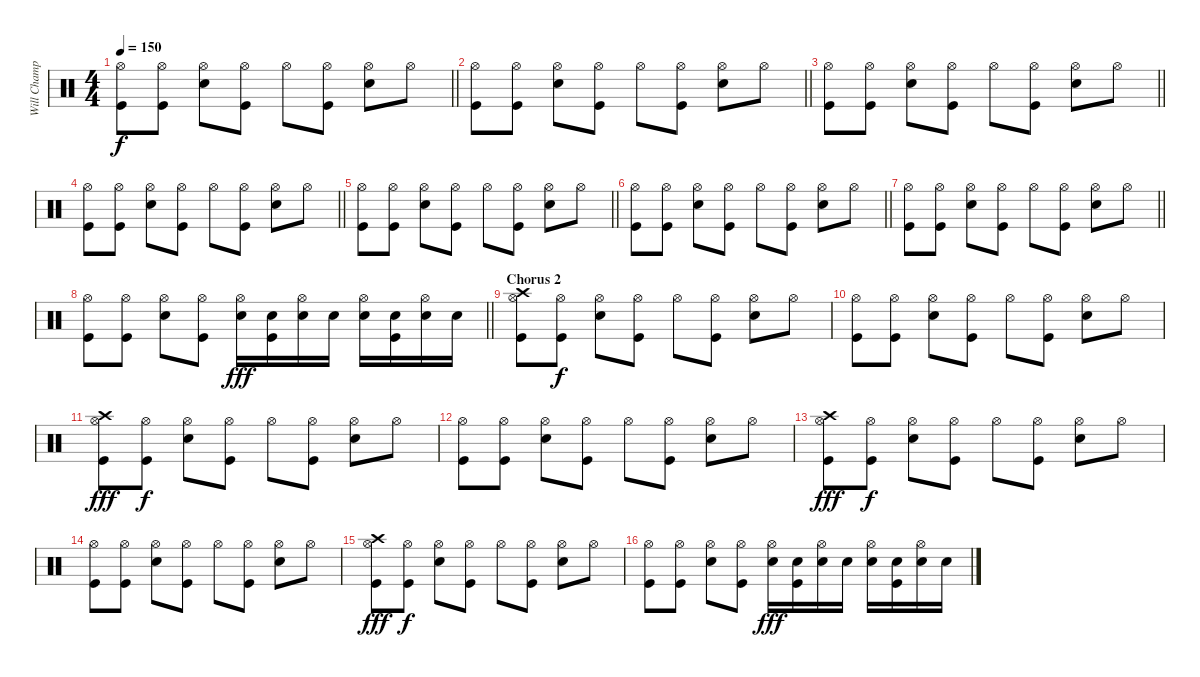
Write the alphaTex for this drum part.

\track ("Will Champion" "Will Champ") {instrument percussion}
\staff {score}
\articulation defaults
\ts (4 4)
\tempo 150
\clef neutral
\barLineRight lightlight
\ks c
("Kick (hit)" "Hi-Hat (open)").8{dy f} ("Kick (hit)" "Hi-Hat (open)").8 ("Snare (hit) 2" "Hi-Hat (open)").8 ("Kick (hit)" "Hi-Hat (open)").8 "Hi-Hat (open)".8 ("Kick (hit)" "Hi-Hat (open)").8 ("Snare (hit) 2" "Hi-Hat (open)").8 "Hi-Hat (open)".8 |
\barLineRight lightlight
("Kick (hit)" "Hi-Hat (open)").8 ("Kick (hit)" "Hi-Hat (open)").8 ("Snare (hit) 2" "Hi-Hat (open)").8 ("Kick (hit)" "Hi-Hat (open)").8 "Hi-Hat (open)".8 ("Kick (hit)" "Hi-Hat (open)").8 ("Snare (hit) 2" "Hi-Hat (open)").8 "Hi-Hat (open)".8 |
\barLineRight lightlight
("Kick (hit)" "Hi-Hat (open)").8 ("Kick (hit)" "Hi-Hat (open)").8 ("Snare (hit) 2" "Hi-Hat (open)").8 ("Kick (hit)" "Hi-Hat (open)").8 "Hi-Hat (open)".8 ("Kick (hit)" "Hi-Hat (open)").8 ("Snare (hit) 2" "Hi-Hat (open)").8 "Hi-Hat (open)".8 |
\barLineRight lightlight
("Kick (hit)" "Hi-Hat (open)").8 ("Kick (hit)" "Hi-Hat (open)").8 ("Snare (hit) 2" "Hi-Hat (open)").8 ("Kick (hit)" "Hi-Hat (open)").8 "Hi-Hat (open)".8 ("Kick (hit)" "Hi-Hat (open)").8 ("Snare (hit) 2" "Hi-Hat (open)").8 "Hi-Hat (open)".8 |
\barLineRight lightlight
("Kick (hit)" "Hi-Hat (open)").8 ("Kick (hit)" "Hi-Hat (open)").8 ("Snare (hit) 2" "Hi-Hat (open)").8 ("Kick (hit)" "Hi-Hat (open)").8 "Hi-Hat (open)".8 ("Kick (hit)" "Hi-Hat (open)").8 ("Snare (hit) 2" "Hi-Hat (open)").8 "Hi-Hat (open)".8 |
\barLineRight lightlight
("Kick (hit)" "Hi-Hat (open)").8 ("Kick (hit)" "Hi-Hat (open)").8 ("Snare (hit) 2" "Hi-Hat (open)").8 ("Kick (hit)" "Hi-Hat (open)").8 "Hi-Hat (open)".8 ("Kick (hit)" "Hi-Hat (open)").8 ("Snare (hit) 2" "Hi-Hat (open)").8 "Hi-Hat (open)".8 |
\barLineRight lightlight
("Kick (hit)" "Hi-Hat (open)").8 ("Kick (hit)" "Hi-Hat (open)").8 ("Snare (hit) 2" "Hi-Hat (open)").8 ("Kick (hit)" "Hi-Hat (open)").8 "Hi-Hat (open)".8 ("Kick (hit)" "Hi-Hat (open)").8 ("Snare (hit) 2" "Hi-Hat (open)").8 "Hi-Hat (open)".8 |
\barLineRight lightlight
("Kick (hit)" "Hi-Hat (open)").8 ("Kick (hit)" "Hi-Hat (open)").8 ("Snare (hit) 2" "Hi-Hat (open)").8 ("Kick (hit)" "Hi-Hat (open)").8 ("Hi-Hat (open)" "Snare (hit) 2").16{dy fff} ("Kick (hit)" "Snare (hit) 2").16 ("Hi-Hat (open)" "Snare (hit) 2").16 "Snare (hit) 2".16 ("Hi-Hat (open)" "Snare (hit) 2").16 ("Kick (hit)" "Snare (hit) 2").16 ("Hi-Hat (open)" "Snare (hit) 2").16 "Snare (hit) 2".16 |
\section ("" "Chorus 2")
("Kick (hit)" "Hi-Hat (open)" "Crash high (hit)").8 ("Kick (hit)" "Hi-Hat (open)").8{dy f} ("Snare (hit) 2" "Hi-Hat (open)").8 ("Kick (hit)" "Hi-Hat (open)").8 "Hi-Hat (open)".8 ("Kick (hit)" "Hi-Hat (open)").8 ("Snare (hit) 2" "Hi-Hat (open)").8 "Hi-Hat (open)".8 |
("Kick (hit)" "Hi-Hat (open)").8 ("Kick (hit)" "Hi-Hat (open)").8 ("Snare (hit) 2" "Hi-Hat (open)").8 ("Kick (hit)" "Hi-Hat (open)").8 "Hi-Hat (open)".8 ("Kick (hit)" "Hi-Hat (open)").8 ("Snare (hit) 2" "Hi-Hat (open)").8 "Hi-Hat (open)".8 |
("Kick (hit)" "Hi-Hat (open)" "Crash high (hit)").8{dy fff} ("Kick (hit)" "Hi-Hat (open)").8{dy f} ("Snare (hit) 2" "Hi-Hat (open)").8 ("Kick (hit)" "Hi-Hat (open)").8 "Hi-Hat (open)".8 ("Kick (hit)" "Hi-Hat (open)").8 ("Snare (hit) 2" "Hi-Hat (open)").8 "Hi-Hat (open)".8 |
("Kick (hit)" "Hi-Hat (open)").8 ("Kick (hit)" "Hi-Hat (open)").8 ("Snare (hit) 2" "Hi-Hat (open)").8 ("Kick (hit)" "Hi-Hat (open)").8 "Hi-Hat (open)".8 ("Kick (hit)" "Hi-Hat (open)").8 ("Snare (hit) 2" "Hi-Hat (open)").8 "Hi-Hat (open)".8 |
("Kick (hit)" "Hi-Hat (open)" "Crash high (hit)").8{dy fff} ("Kick (hit)" "Hi-Hat (open)").8{dy f} ("Snare (hit) 2" "Hi-Hat (open)").8 ("Kick (hit)" "Hi-Hat (open)").8 "Hi-Hat (open)".8 ("Kick (hit)" "Hi-Hat (open)").8 ("Snare (hit) 2" "Hi-Hat (open)").8 "Hi-Hat (open)".8 |
("Kick (hit)" "Hi-Hat (open)").8 ("Kick (hit)" "Hi-Hat (open)").8 ("Snare (hit) 2" "Hi-Hat (open)").8 ("Kick (hit)" "Hi-Hat (open)").8 "Hi-Hat (open)".8 ("Kick (hit)" "Hi-Hat (open)").8 ("Snare (hit) 2" "Hi-Hat (open)").8 "Hi-Hat (open)".8 |
("Kick (hit)" "Hi-Hat (open)" "Crash high (hit)").8{dy fff} ("Kick (hit)" "Hi-Hat (open)").8{dy f} ("Snare (hit) 2" "Hi-Hat (open)").8 ("Kick (hit)" "Hi-Hat (open)").8 "Hi-Hat (open)".8 ("Kick (hit)" "Hi-Hat (open)").8 ("Snare (hit) 2" "Hi-Hat (open)").8 "Hi-Hat (open)".8 |
("Kick (hit)" "Hi-Hat (open)").8 ("Kick (hit)" "Hi-Hat (open)").8 ("Snare (hit) 2" "Hi-Hat (open)").8 ("Kick (hit)" "Hi-Hat (open)").8 ("Hi-Hat (open)" "Snare (hit) 2").16{dy fff} ("Kick (hit)" "Snare (hit) 2").16 ("Hi-Hat (open)" "Snare (hit) 2").16 "Snare (hit) 2".16 ("Hi-Hat (open)" "Snare (hit) 2").16 ("Kick (hit)" "Snare (hit) 2").16 ("Hi-Hat (open)" "Snare (hit) 2").16 "Snare (hit) 2".16
